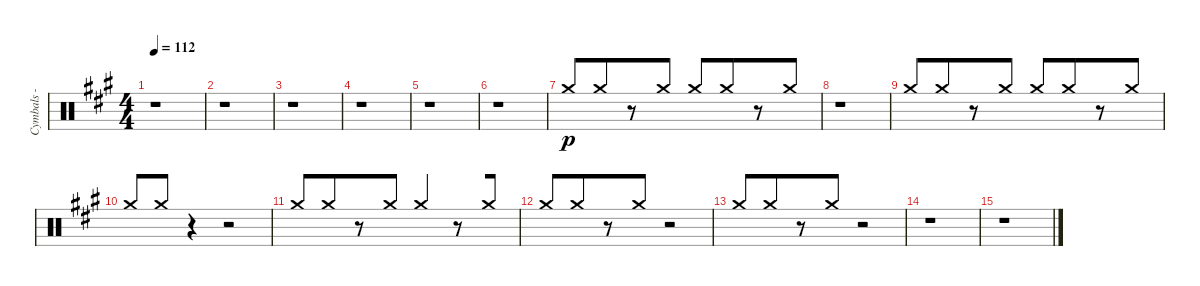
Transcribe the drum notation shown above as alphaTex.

\track ("Cymbals - ride" "Cymbals - ") {instrument percussion}
\staff {score}
\articulation defaults
\ts (4 4)
\tempo 112
\clef neutral
\ks f#minor
r.1{dy p} |
r.1 |
r.1 |
r.1 |
r.1 |
r.1 |
"Crash medium (hit)".8{beam Up} "Crash medium (hit)".8{beam Up beam merge} r.8{beam Up} "Crash medium (hit)".8{beam Up} "Crash medium (hit)".8{beam Up} "Crash medium (hit)".8{beam Up beam merge} r.8{beam Up} "Crash medium (hit)".8{beam Up} |
r.1 |
"Crash medium (hit)".8{beam Up} "Crash medium (hit)".8{beam Up beam merge} r.8{beam Up} "Crash medium (hit)".8{beam Up} "Crash medium (hit)".8{beam Up} "Crash medium (hit)".8{beam Up beam merge} r.8{beam Up} "Crash medium (hit)".8{beam Up} |
"Crash medium (hit)".8{beam Up} "Crash medium (hit)".8{beam Up} r.4 r.2 |
"Crash medium (hit)".8{beam Up} "Crash medium (hit)".8{beam Up beam merge} r.8{beam Up} "Crash medium (hit)".8{beam Up} "Crash medium (hit)".4{beam Up beam merge} r.8{beam Up} "Crash medium (hit)".8{beam Up} |
"Crash medium (hit)".8{beam Up} "Crash medium (hit)".8{beam Up beam merge} r.8{beam Up} "Crash medium (hit)".8{beam Up} r.2 |
"Crash medium (hit)".8{beam Up} "Crash medium (hit)".8{beam Up beam merge} r.8{beam Up} "Crash medium (hit)".8{beam Up} r.2 |
r.1 |
r.1
